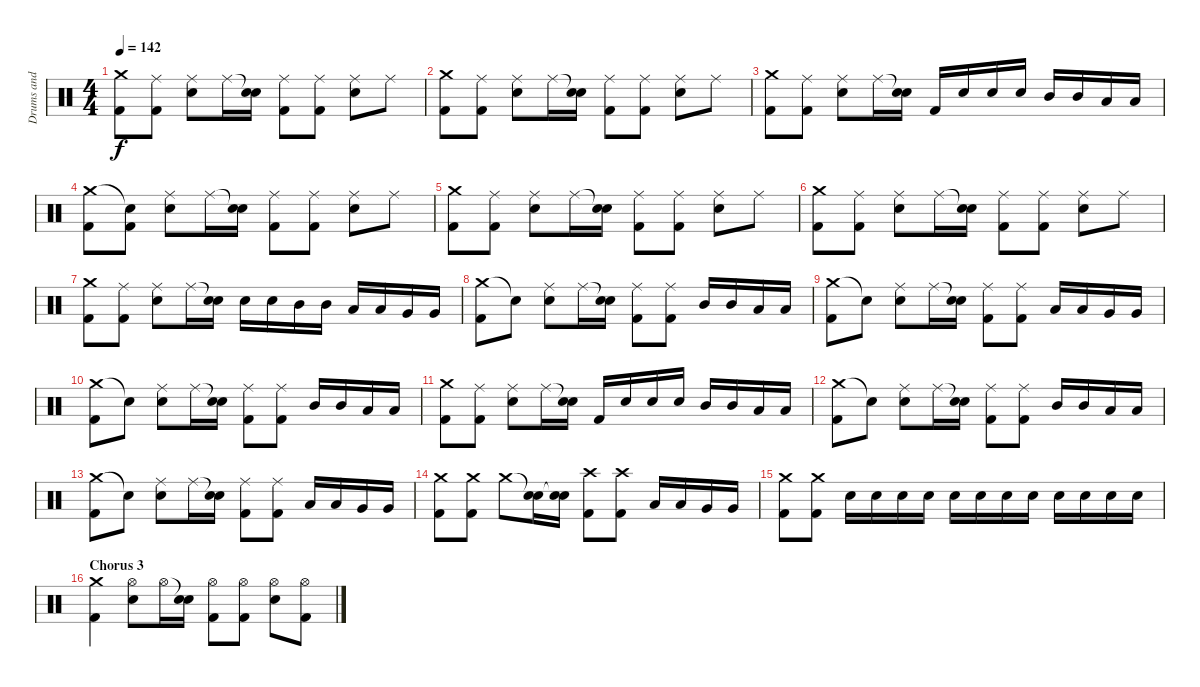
\track ("Drums and Percussion" "Drums and ") {instrument percussion}
\staff {score}
\articulation defaults
\ts (4 4)
\tempo 142
\clef neutral
\ks c
("Crash medium (hit)" "Kick (hit) 2").8{dy f} ("Ride (middle)" "Kick (hit) 2").8 ("Ride (middle)" "Electric Snare (hit)").8 "Ride (middle)".16 ("Snare (hit)"{t} "Electric Snare (hit)").16 ("Ride (middle)" "Kick (hit) 2").8 ("Ride (middle)" "Kick (hit) 2").8 ("Ride (middle)" "Electric Snare (hit)").8 "Ride (middle)".8 |
("Crash medium (hit)" "Kick (hit) 2").8 ("Ride (middle)" "Kick (hit) 2").8 ("Ride (middle)" "Electric Snare (hit)").8 "Ride (middle)".16 ("Snare (hit)"{t} "Electric Snare (hit)").16 ("Ride (middle)" "Kick (hit) 2").8 ("Ride (middle)" "Kick (hit) 2").8 ("Ride (middle)" "Electric Snare (hit)").8 "Ride (middle)".8 |
("Crash medium (hit)" "Kick (hit) 2").8 ("Ride (middle)" "Kick (hit) 2").8 ("Ride (middle)" "Electric Snare (hit)").8 "Ride (middle)".16 ("Snare (hit)"{t} "Electric Snare (hit)").16 "Kick (hit) 2".16 "Electric Snare (hit)".16 "Electric Snare (hit)".16 "Electric Snare (hit)".16 "Mid Tom (hit)".16 "Mid Tom (hit)".16 "Low Tom (hit)".16 "Low Tom (hit)".16 |
("Crash medium (hit)" "Kick (hit) 2").8 ("Snare (hit)"{t} "Kick (hit) 2").8 ("Ride (middle)" "Electric Snare (hit)").8 "Ride (middle)".16 ("Snare (hit)"{t} "Electric Snare (hit)").16 ("Ride (middle)" "Kick (hit) 2").8 ("Ride (middle)" "Kick (hit) 2").8 ("Ride (middle)" "Electric Snare (hit)").8 "Ride (middle)".8 |
("Crash medium (hit)" "Kick (hit) 2").8 ("Ride (middle)" "Kick (hit) 2").8 ("Ride (middle)" "Electric Snare (hit)").8 "Ride (middle)".16 ("Snare (hit)"{t} "Electric Snare (hit)").16 ("Ride (middle)" "Kick (hit) 2").8 ("Ride (middle)" "Kick (hit) 2").8 ("Ride (middle)" "Electric Snare (hit)").8 "Ride (middle)".8 |
("Crash medium (hit)" "Kick (hit) 2").8 ("Ride (middle)" "Kick (hit) 2").8 ("Ride (middle)" "Electric Snare (hit)").8 "Ride (middle)".16 ("Snare (hit)"{t} "Electric Snare (hit)").16 ("Ride (middle)" "Kick (hit) 2").8 ("Ride (middle)" "Kick (hit) 2").8 ("Ride (middle)" "Electric Snare (hit)").8 "Ride (middle)".8 |
("Crash medium (hit)" "Kick (hit) 2").8 ("Ride (middle)" "Kick (hit) 2").8 ("Ride (middle)" "Electric Snare (hit)").8 "Ride (middle)".16 ("Snare (hit)"{t} "Electric Snare (hit)").16 "Electric Snare (hit)".16 "Electric Snare (hit)".16 "Mid Tom (hit)".16 "Mid Tom (hit)".16 "Low Tom (hit)".16 "Low Tom (hit)".16 "Very Low Tom (hit)".16 "Very Low Tom (hit)".16 |
("Crash medium (hit)" "Kick (hit) 2").8 "Snare (hit)"{t}.8 ("Ride (middle)" "Electric Snare (hit)").8 "Ride (middle)".16 ("Snare (hit)"{t} "Electric Snare (hit)").16 ("Ride (middle)" "Kick (hit) 2").8 ("Ride (middle)" "Kick (hit) 2").8 "Mid Tom (hit)".16 "Mid Tom (hit)".16 "Low Tom (hit)".16 "Low Tom (hit)".16 |
("Crash medium (hit)" "Kick (hit) 2").8 "Snare (hit)"{t}.8 ("Ride (middle)" "Electric Snare (hit)").8 "Ride (middle)".16 ("Snare (hit)"{t} "Electric Snare (hit)").16 ("Ride (middle)" "Kick (hit) 2").8 ("Ride (middle)" "Kick (hit) 2").8 "Low Tom (hit)".16 "Low Tom (hit)".16 "Very Low Tom (hit)".16 "Very Low Tom (hit)".16 |
("Crash medium (hit)" "Kick (hit) 2").8 "Snare (hit)"{t}.8 ("Ride (middle)" "Electric Snare (hit)").8 "Ride (middle)".16 ("Snare (hit)"{t} "Electric Snare (hit)").16 ("Ride (middle)" "Kick (hit) 2").8 ("Ride (middle)" "Kick (hit) 2").8 "Mid Tom (hit)".16 "Mid Tom (hit)".16 "Low Tom (hit)".16 "Low Tom (hit)".16 |
("Crash medium (hit)" "Kick (hit) 2").8 ("Ride (middle)" "Kick (hit) 2").8 ("Ride (middle)" "Electric Snare (hit)").8 "Ride (middle)".16 ("Snare (hit)"{t} "Electric Snare (hit)").16 "Kick (hit) 2".16 "Electric Snare (hit)".16 "Electric Snare (hit)".16 "Electric Snare (hit)".16 "Mid Tom (hit)".16 "Mid Tom (hit)".16 "Low Tom (hit)".16 "Low Tom (hit)".16 |
("Crash medium (hit)" "Kick (hit) 2").8 "Snare (hit)"{t}.8 ("Ride (middle)" "Electric Snare (hit)").8 "Ride (middle)".16 ("Snare (hit)"{t} "Electric Snare (hit)").16 ("Ride (middle)" "Kick (hit) 2").8 ("Ride (middle)" "Kick (hit) 2").8 "Mid Tom (hit)".16 "Mid Tom (hit)".16 "Low Tom (hit)".16 "Low Tom (hit)".16 |
("Crash medium (hit)" "Kick (hit) 2").8 "Snare (hit)"{t}.8 ("Ride (middle)" "Electric Snare (hit)").8 "Ride (middle)".16 ("Snare (hit)"{t} "Electric Snare (hit)").16 ("Ride (middle)" "Kick (hit) 2").8 ("Ride (middle)" "Kick (hit) 2").8 "Low Tom (hit)".16 "Low Tom (hit)".16 "Very Low Tom (hit)".16 "Very Low Tom (hit)".16 |
("Crash medium (hit)" "Kick (hit) 2").8 ("Crash medium (hit)" "Kick (hit) 2").8 "Crash medium (hit)".8 ("Snare (hit)"{t} "Electric Snare (hit)").16 ("Snare (hit)"{t} "Electric Snare (hit)").16 ("Crash high (hit)" "Kick (hit) 2").8 ("Crash high (hit)" "Kick (hit) 2").8 "Low Tom (hit)".16 "Low Tom (hit)".16 "Very Low Tom (hit)".16 "Very Low Tom (hit)".16 |
("Crash medium (hit)" "Kick (hit) 2").8 ("Crash medium (hit)" "Kick (hit) 2").8 "Electric Snare (hit)".16 "Electric Snare (hit)".16 "Electric Snare (hit)".16 "Electric Snare (hit)".16 "Electric Snare (hit)".16 "Electric Snare (hit)".16 "Electric Snare (hit)".16 "Electric Snare (hit)".16 "Electric Snare (hit)".16 "Electric Snare (hit)".16 "Electric Snare (hit)".16 "Electric Snare (hit)".16 |
\section ("" "Chorus 3")
("Crash medium (hit)" "Kick (hit) 2").4 ("Hi-Hat (open)" "Electric Snare (hit)").8 "Hi-Hat (open)".16 ("Snare (hit)"{t} "Electric Snare (hit)").16 ("Hi-Hat (open)" "Kick (hit) 2").8 ("Hi-Hat (open)" "Kick (hit) 2").8 ("Hi-Hat (open)" "Electric Snare (hit)").8 ("Hi-Hat (open)" "Kick (hit) 2").8
